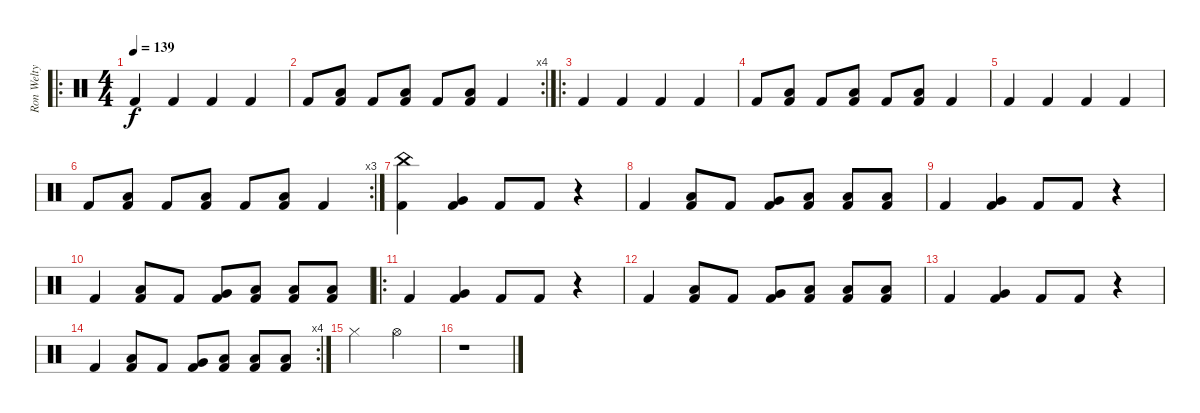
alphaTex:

\track ("Ron Welty" "Ron Welty") {instrument percussion}
\staff {score}
\articulation defaults
\ro
\ts (4 4)
\tempo 139
\clef neutral
\ks c "Kick (hit) 2".4{dy f} "Kick (hit) 2".4 "Kick (hit) 2".4 "Kick (hit) 2".4
|
\rc 4 "Kick (hit) 2".8
("Low Tom (hit)" "Kick (hit) 2").8 "Kick (hit) 2".8 ("Low Tom (hit)" "Kick (hit) 2").8 "Kick (hit) 2".8 ("Low Tom (hit)" "Kick (hit) 2").8 "Kick (hit) 2".4 |
\ro "Kick (hit) 2".4 "Kick (hit) 2".4 "Kick (hit) 2".4 "Kick (hit) 2".4
|
"Kick (hit) 2".8 ("Low Tom (hit)" "Kick (hit) 2").8 "Kick (hit) 2".8 ("Low Tom (hit)" "Kick (hit) 2").8 "Kick (hit) 2".8 ("Low Tom (hit)" "Kick (hit) 2").8 "Kick (hit) 2".4 |
"Kick (hit) 2".4 "Kick (hit) 2".4 "Kick (hit) 2".4 "Kick (hit) 2".4 |
\rc 3 "Kick (hit) 2".8
("Low Tom (hit)" "Kick (hit) 2").8 "Kick (hit) 2".8 ("Low Tom (hit)" "Kick (hit) 2").8 "Kick (hit) 2".8 ("Low Tom (hit)" "Kick (hit) 2").8 "Kick (hit) 2".4 |
("China (hit)" "Kick (hit) 2").4 ("Very Low Tom (hit)" "Kick (hit) 2").4 "Kick (hit) 2".8 "Kick (hit) 2".8 r.4 |
"Kick (hit) 2".4 ("Low Tom (hit)" "Kick (hit) 2").8 "Kick (hit) 2".8 ("Very Low Tom (hit)" "Kick (hit) 2").8 ("Low Tom (hit)" "Kick (hit) 2").8 ("Low Tom (hit)" "Kick (hit) 2").8 ("Low Tom (hit)" "Kick (hit) 2").8 |
"Kick (hit) 2".4 ("Very Low Tom (hit)" "Kick (hit) 2").4 "Kick (hit) 2".8 "Kick (hit) 2".8 r.4 |
"Kick (hit) 2".4 ("Low Tom (hit)" "Kick (hit) 2").8 "Kick (hit) 2".8 ("Very Low Tom (hit)" "Kick (hit) 2").8 ("Low Tom (hit)" "Kick (hit) 2").8 ("Low Tom (hit)" "Kick (hit) 2").8 ("Low Tom (hit)" "Kick (hit) 2").8 |
\ro "Kick (hit) 2".4
("Very Low Tom (hit)" "Kick (hit) 2").4 "Kick (hit) 2".8 "Kick (hit) 2".8 r.4 |
"Kick (hit) 2".4 ("Low Tom (hit)" "Kick (hit) 2").8 "Kick (hit) 2".8 ("Very Low Tom (hit)" "Kick (hit) 2").8 ("Low Tom (hit)" "Kick (hit) 2").8 ("Low Tom (hit)" "Kick (hit) 2").8 ("Low Tom (hit)" "Kick (hit) 2").8 |
"Kick (hit) 2".4 ("Very Low Tom (hit)" "Kick (hit) 2").4 "Kick (hit) 2".8 "Kick (hit) 2".8 r.4 |
\rc 4 "Kick (hit) 2".4
("Low Tom (hit)" "Kick (hit) 2").8 "Kick (hit) 2".8 ("Very Low Tom (hit)" "Kick (hit) 2").8 ("Low Tom (hit)" "Kick (hit) 2").8 ("Low Tom (hit)" "Kick (hit) 2").8 ("Low Tom (hit)" "Kick (hit) 2").8 |
"Hi-Hat (closed)".2 "Hi-Hat (open)".2 |
r.1
